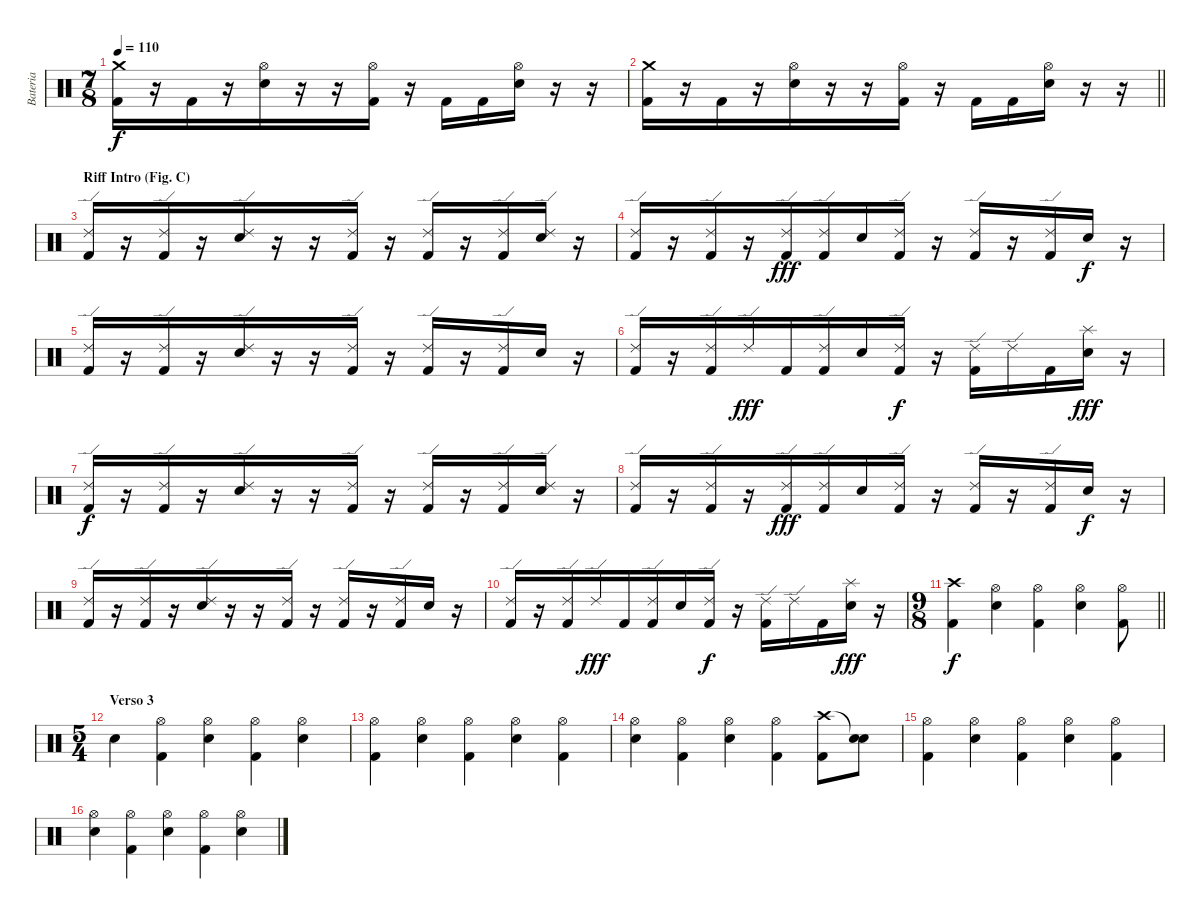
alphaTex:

\track ("Bateria " "Bateria ") {instrument percussion}
\staff {score}
\articulation defaults
\ts (7 8)
\tempo 110
\clef neutral
\ks c
("Crash medium (hit)" "Kick (hit) 2").16{dy f} r.16 "Kick (hit) 2".16 r.16 ("Hi-Hat (open)" "Electric Snare (hit)").16 r.16 r.16 ("Hi-Hat (open)" "Kick (hit) 2").16 r.16 "Kick (hit) 2".16 "Kick (hit) 2".16 ("Hi-Hat (open)" "Electric Snare (hit)").16 r.16 r.16 |
\barLineRight lightlight
("Crash medium (hit)" "Kick (hit) 2").16 r.16 "Kick (hit) 2".16 r.16 ("Hi-Hat (open)" "Electric Snare (hit)").16 r.16 r.16 ("Hi-Hat (open)" "Kick (hit) 2").16 r.16 "Kick (hit) 2".16 "Kick (hit) 2".16 ("Hi-Hat (open)" "Electric Snare (hit)").16 r.16 r.16 |
\section ("" "Riff Intro (Fig. C)")
("Ride (edge) 2" "Kick (hit) 2").16 r.16 ("Ride (edge) 2" "Kick (hit) 2").16 r.16 ("Ride (edge) 2" "Electric Snare (hit)").16 r.16 r.16 ("Ride (edge) 2" "Kick (hit) 2").16 r.16 ("Ride (edge) 2" "Kick (hit) 2").16 r.16 ("Ride (edge) 2" "Kick (hit) 2").16 ("Ride (edge) 2" "Electric Snare (hit)").16 r.16 |
("Ride (edge) 2" "Kick (hit) 2").16 r.16 ("Ride (edge) 2" "Kick (hit) 2").16 r.16 ("Ride (edge) 2" "Kick (hit) 2").16{dy fff} ("Ride (edge) 2" "Kick (hit) 2").16 "Electric Snare (hit)".16 ("Ride (edge) 2" "Kick (hit) 2").16 r.16 ("Ride (edge) 2" "Kick (hit) 2").16 r.16 ("Ride (edge) 2" "Kick (hit) 2").16 "Electric Snare (hit)".16{dy f} r.16 |
("Ride (edge) 2" "Kick (hit) 2").16 r.16 ("Ride (edge) 2" "Kick (hit) 2").16 r.16 ("Ride (edge) 2" "Electric Snare (hit)").16 r.16 r.16 ("Ride (edge) 2" "Kick (hit) 2").16 r.16 ("Ride (edge) 2" "Kick (hit) 2").16 r.16 ("Ride (edge) 2" "Kick (hit) 2").16 "Electric Snare (hit)".16 r.16 |
("Ride (edge) 2" "Kick (hit) 2").16 r.16 ("Ride (edge) 2" "Kick (hit) 2").16 "Ride (edge) 2".16{dy fff} "Kick (hit) 2".16 ("Ride (edge) 2" "Kick (hit) 2").16 "Electric Snare (hit)".16 ("Ride (edge) 2" "Kick (hit) 2").16{dy f} r.16 ("Ride (edge) 2" "Kick (hit) 2").16 "Ride (edge) 2".16 "Kick (hit) 2".16 ("Splash (hit)" "Electric Snare (hit)").16{dy fff} r.16 |
("Ride (edge) 2" "Kick (hit) 2").16{dy f} r.16 ("Ride (edge) 2" "Kick (hit) 2").16 r.16 ("Ride (edge) 2" "Electric Snare (hit)").16 r.16 r.16 ("Ride (edge) 2" "Kick (hit) 2").16 r.16 ("Ride (edge) 2" "Kick (hit) 2").16 r.16 ("Ride (edge) 2" "Kick (hit) 2").16 ("Ride (edge) 2" "Electric Snare (hit)").16 r.16 |
("Ride (edge) 2" "Kick (hit) 2").16 r.16 ("Ride (edge) 2" "Kick (hit) 2").16 r.16 ("Ride (edge) 2" "Kick (hit) 2").16{dy fff} ("Ride (edge) 2" "Kick (hit) 2").16 "Electric Snare (hit)".16 ("Ride (edge) 2" "Kick (hit) 2").16 r.16 ("Ride (edge) 2" "Kick (hit) 2").16 r.16 ("Ride (edge) 2" "Kick (hit) 2").16 "Electric Snare (hit)".16{dy f} r.16 |
("Ride (edge) 2" "Kick (hit) 2").16 r.16 ("Ride (edge) 2" "Kick (hit) 2").16 r.16 ("Ride (edge) 2" "Electric Snare (hit)").16 r.16 r.16 ("Ride (edge) 2" "Kick (hit) 2").16 r.16 ("Ride (edge) 2" "Kick (hit) 2").16 r.16 ("Ride (edge) 2" "Kick (hit) 2").16 "Electric Snare (hit)".16 r.16 |
("Ride (edge) 2" "Kick (hit) 2").16 r.16 ("Ride (edge) 2" "Kick (hit) 2").16 "Ride (edge) 2".16{dy fff} "Kick (hit) 2".16 ("Ride (edge) 2" "Kick (hit) 2").16 "Electric Snare (hit)".16 ("Ride (edge) 2" "Kick (hit) 2").16{dy f} r.16 ("Ride (edge) 2" "Kick (hit) 2").16 "Ride (edge) 2".16 "Kick (hit) 2".16 ("Splash (hit)" "Electric Snare (hit)").16{dy fff} r.16 |
\ts (9 8)
\barLineRight lightlight
("Crash high (hit)" "Kick (hit) 2").4{dy f} ("Hi-Hat (open)" "Electric Snare (hit)").4 ("Hi-Hat (open)" "Kick (hit) 2").4 ("Hi-Hat (open)" "Electric Snare (hit)").4 ("Hi-Hat (open)" "Kick (hit) 2").8 |
\ts (5 4)
\section ("" "Verso 3")
"Electric Snare (hit)".4 ("Hi-Hat (open)" "Kick (hit) 2").4 ("Hi-Hat (open)" "Electric Snare (hit)").4 ("Hi-Hat (open)" "Kick (hit) 2").4 ("Hi-Hat (open)" "Electric Snare (hit)").4 |
("Hi-Hat (open)" "Kick (hit) 2").4 ("Hi-Hat (open)" "Electric Snare (hit)").4 ("Hi-Hat (open)" "Kick (hit) 2").4 ("Hi-Hat (open)" "Electric Snare (hit)").4 ("Hi-Hat (open)" "Kick (hit) 2").4 |
("Hi-Hat (open)" "Electric Snare (hit)").4 ("Hi-Hat (open)" "Kick (hit) 2").4 ("Hi-Hat (open)" "Electric Snare (hit)").4 ("Hi-Hat (open)" "Kick (hit) 2").4 ("Crash high (hit)" "Kick (hit) 2").8 ("Snare (hit)"{t} "Electric Snare (hit)").8 |
("Hi-Hat (open)" "Kick (hit) 2").4 ("Hi-Hat (open)" "Electric Snare (hit)").4 ("Hi-Hat (open)" "Kick (hit) 2").4 ("Hi-Hat (open)" "Electric Snare (hit)").4 ("Hi-Hat (open)" "Kick (hit) 2").4 |
("Hi-Hat (open)" "Electric Snare (hit)").4 ("Hi-Hat (open)" "Kick (hit) 2").4 ("Hi-Hat (open)" "Electric Snare (hit)").4 ("Hi-Hat (open)" "Kick (hit) 2").4 ("Hi-Hat (open)" "Electric Snare (hit)").4
